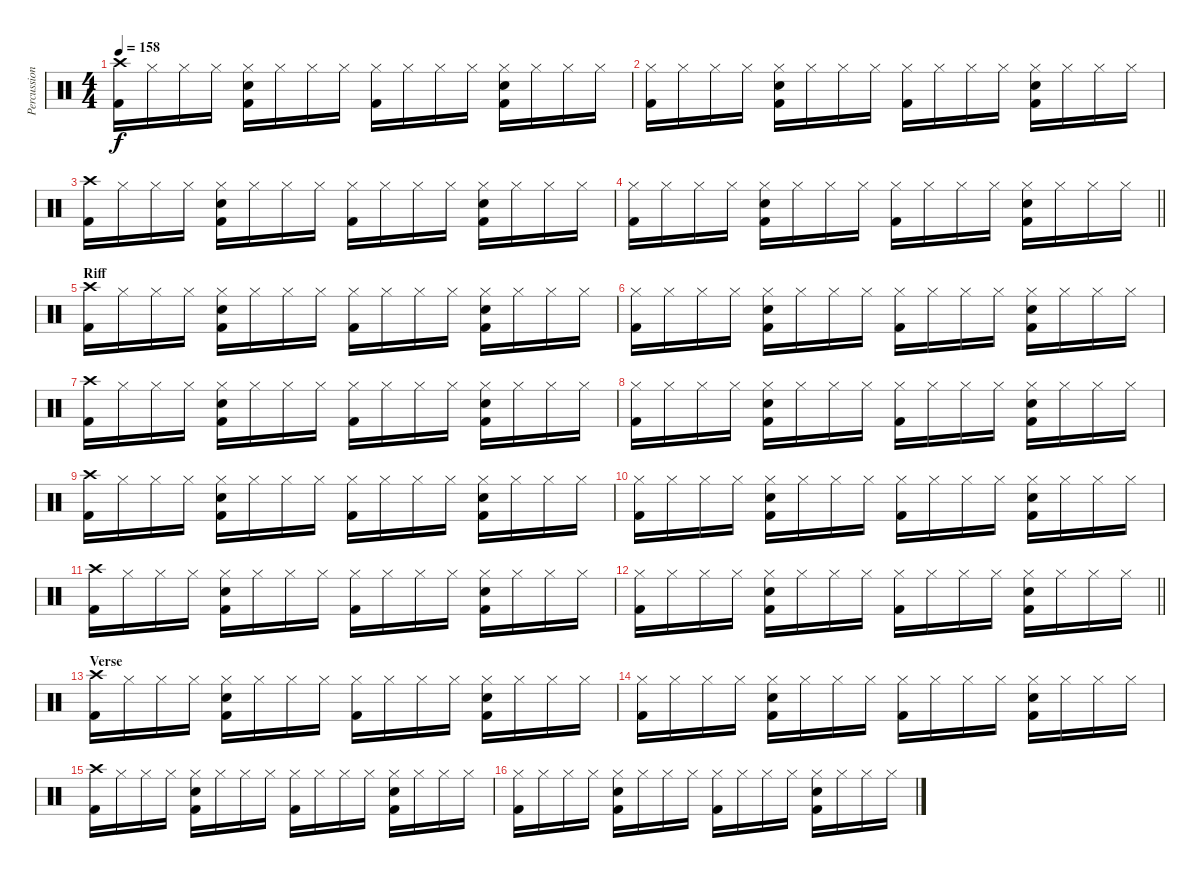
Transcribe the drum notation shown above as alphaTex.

\track ("Percussion" "Percussion") {instrument percussion}
\staff {score}
\articulation defaults
\ts (4 4)
\tempo 158
\clef neutral
\ks c
("Crash high (hit)" "Kick (hit) 2").16{dy f} "Hi-Hat (closed)".16 "Hi-Hat (closed)".16 "Hi-Hat (closed)".16 ("Hi-Hat (closed)" "Electric Snare (hit)" "Kick (hit) 2").16 "Hi-Hat (closed)".16 "Hi-Hat (closed)".16 "Hi-Hat (closed)".16 ("Hi-Hat (closed)" "Kick (hit) 2").16 "Hi-Hat (closed)".16 "Hi-Hat (closed)".16 "Hi-Hat (closed)".16 ("Hi-Hat (closed)" "Electric Snare (hit)" "Kick (hit) 2").16 "Hi-Hat (closed)".16 "Hi-Hat (closed)".16 "Hi-Hat (closed)".16 |
("Hi-Hat (closed)" "Kick (hit) 2").16 "Hi-Hat (closed)".16 "Hi-Hat (closed)".16 "Hi-Hat (closed)".16 ("Hi-Hat (closed)" "Electric Snare (hit)" "Kick (hit) 2").16 "Hi-Hat (closed)".16 "Hi-Hat (closed)".16 "Hi-Hat (closed)".16 ("Hi-Hat (closed)" "Kick (hit) 2").16 "Hi-Hat (closed)".16 "Hi-Hat (closed)".16 "Hi-Hat (closed)".16 ("Hi-Hat (closed)" "Electric Snare (hit)" "Kick (hit) 2").16 "Hi-Hat (closed)".16 "Hi-Hat (closed)".16 "Hi-Hat (closed)".16 |
("Crash high (hit)" "Kick (hit) 2").16 "Hi-Hat (closed)".16 "Hi-Hat (closed)".16 "Hi-Hat (closed)".16 ("Hi-Hat (closed)" "Electric Snare (hit)" "Kick (hit) 2").16 "Hi-Hat (closed)".16 "Hi-Hat (closed)".16 "Hi-Hat (closed)".16 ("Hi-Hat (closed)" "Kick (hit) 2").16 "Hi-Hat (closed)".16 "Hi-Hat (closed)".16 "Hi-Hat (closed)".16 ("Hi-Hat (closed)" "Electric Snare (hit)" "Kick (hit) 2").16 "Hi-Hat (closed)".16 "Hi-Hat (closed)".16 "Hi-Hat (closed)".16 |
\barLineRight lightlight
("Hi-Hat (closed)" "Kick (hit) 2").16 "Hi-Hat (closed)".16 "Hi-Hat (closed)".16 "Hi-Hat (closed)".16 ("Hi-Hat (closed)" "Electric Snare (hit)" "Kick (hit) 2").16 "Hi-Hat (closed)".16 "Hi-Hat (closed)".16 "Hi-Hat (closed)".16 ("Hi-Hat (closed)" "Kick (hit) 2").16 "Hi-Hat (closed)".16 "Hi-Hat (closed)".16 "Hi-Hat (closed)".16 ("Hi-Hat (closed)" "Electric Snare (hit)" "Kick (hit) 2").16 "Hi-Hat (closed)".16 "Hi-Hat (closed)".16 "Hi-Hat (closed)".16 |
\section ("" "Riff")
("Crash high (hit)" "Kick (hit) 2").16 "Hi-Hat (closed)".16 "Hi-Hat (closed)".16 "Hi-Hat (closed)".16 ("Hi-Hat (closed)" "Electric Snare (hit)" "Kick (hit) 2").16 "Hi-Hat (closed)".16 "Hi-Hat (closed)".16 "Hi-Hat (closed)".16 ("Hi-Hat (closed)" "Kick (hit) 2").16 "Hi-Hat (closed)".16 "Hi-Hat (closed)".16 "Hi-Hat (closed)".16 ("Hi-Hat (closed)" "Electric Snare (hit)" "Kick (hit) 2").16 "Hi-Hat (closed)".16 "Hi-Hat (closed)".16 "Hi-Hat (closed)".16 |
("Hi-Hat (closed)" "Kick (hit) 2").16 "Hi-Hat (closed)".16 "Hi-Hat (closed)".16 "Hi-Hat (closed)".16 ("Hi-Hat (closed)" "Electric Snare (hit)" "Kick (hit) 2").16 "Hi-Hat (closed)".16 "Hi-Hat (closed)".16 "Hi-Hat (closed)".16 ("Hi-Hat (closed)" "Kick (hit) 2").16 "Hi-Hat (closed)".16 "Hi-Hat (closed)".16 "Hi-Hat (closed)".16 ("Hi-Hat (closed)" "Electric Snare (hit)" "Kick (hit) 2").16 "Hi-Hat (closed)".16 "Hi-Hat (closed)".16 "Hi-Hat (closed)".16 |
("Crash high (hit)" "Kick (hit) 2").16 "Hi-Hat (closed)".16 "Hi-Hat (closed)".16 "Hi-Hat (closed)".16 ("Hi-Hat (closed)" "Electric Snare (hit)" "Kick (hit) 2").16 "Hi-Hat (closed)".16 "Hi-Hat (closed)".16 "Hi-Hat (closed)".16 ("Hi-Hat (closed)" "Kick (hit) 2").16 "Hi-Hat (closed)".16 "Hi-Hat (closed)".16 "Hi-Hat (closed)".16 ("Hi-Hat (closed)" "Electric Snare (hit)" "Kick (hit) 2").16 "Hi-Hat (closed)".16 "Hi-Hat (closed)".16 "Hi-Hat (closed)".16 |
("Hi-Hat (closed)" "Kick (hit) 2").16 "Hi-Hat (closed)".16 "Hi-Hat (closed)".16 "Hi-Hat (closed)".16 ("Hi-Hat (closed)" "Electric Snare (hit)" "Kick (hit) 2").16 "Hi-Hat (closed)".16 "Hi-Hat (closed)".16 "Hi-Hat (closed)".16 ("Hi-Hat (closed)" "Kick (hit) 2").16 "Hi-Hat (closed)".16 "Hi-Hat (closed)".16 "Hi-Hat (closed)".16 ("Hi-Hat (closed)" "Electric Snare (hit)" "Kick (hit) 2").16 "Hi-Hat (closed)".16 "Hi-Hat (closed)".16 "Hi-Hat (closed)".16 |
("Crash high (hit)" "Kick (hit) 2").16 "Hi-Hat (closed)".16 "Hi-Hat (closed)".16 "Hi-Hat (closed)".16 ("Hi-Hat (closed)" "Electric Snare (hit)" "Kick (hit) 2").16 "Hi-Hat (closed)".16 "Hi-Hat (closed)".16 "Hi-Hat (closed)".16 ("Hi-Hat (closed)" "Kick (hit) 2").16 "Hi-Hat (closed)".16 "Hi-Hat (closed)".16 "Hi-Hat (closed)".16 ("Hi-Hat (closed)" "Electric Snare (hit)" "Kick (hit) 2").16 "Hi-Hat (closed)".16 "Hi-Hat (closed)".16 "Hi-Hat (closed)".16 |
("Hi-Hat (closed)" "Kick (hit) 2").16 "Hi-Hat (closed)".16 "Hi-Hat (closed)".16 "Hi-Hat (closed)".16 ("Hi-Hat (closed)" "Electric Snare (hit)" "Kick (hit) 2").16 "Hi-Hat (closed)".16 "Hi-Hat (closed)".16 "Hi-Hat (closed)".16 ("Hi-Hat (closed)" "Kick (hit) 2").16 "Hi-Hat (closed)".16 "Hi-Hat (closed)".16 "Hi-Hat (closed)".16 ("Hi-Hat (closed)" "Electric Snare (hit)" "Kick (hit) 2").16 "Hi-Hat (closed)".16 "Hi-Hat (closed)".16 "Hi-Hat (closed)".16 |
("Crash high (hit)" "Kick (hit) 2").16 "Hi-Hat (closed)".16 "Hi-Hat (closed)".16 "Hi-Hat (closed)".16 ("Hi-Hat (closed)" "Electric Snare (hit)" "Kick (hit) 2").16 "Hi-Hat (closed)".16 "Hi-Hat (closed)".16 "Hi-Hat (closed)".16 ("Hi-Hat (closed)" "Kick (hit) 2").16 "Hi-Hat (closed)".16 "Hi-Hat (closed)".16 "Hi-Hat (closed)".16 ("Hi-Hat (closed)" "Electric Snare (hit)" "Kick (hit) 2").16 "Hi-Hat (closed)".16 "Hi-Hat (closed)".16 "Hi-Hat (closed)".16 |
\barLineRight lightlight
("Hi-Hat (closed)" "Kick (hit) 2").16 "Hi-Hat (closed)".16 "Hi-Hat (closed)".16 "Hi-Hat (closed)".16 ("Hi-Hat (closed)" "Electric Snare (hit)" "Kick (hit) 2").16 "Hi-Hat (closed)".16 "Hi-Hat (closed)".16 "Hi-Hat (closed)".16 ("Hi-Hat (closed)" "Kick (hit) 2").16 "Hi-Hat (closed)".16 "Hi-Hat (closed)".16 "Hi-Hat (closed)".16 ("Hi-Hat (closed)" "Electric Snare (hit)" "Kick (hit) 2").16 "Hi-Hat (closed)".16 "Hi-Hat (closed)".16 "Hi-Hat (closed)".16 |
\section ("" "Verse")
("Crash high (hit)" "Kick (hit) 2").16 "Hi-Hat (closed)".16 "Hi-Hat (closed)".16 "Hi-Hat (closed)".16 ("Hi-Hat (closed)" "Electric Snare (hit)" "Kick (hit) 2").16 "Hi-Hat (closed)".16 "Hi-Hat (closed)".16 "Hi-Hat (closed)".16 ("Hi-Hat (closed)" "Kick (hit) 2").16 "Hi-Hat (closed)".16 "Hi-Hat (closed)".16 "Hi-Hat (closed)".16 ("Hi-Hat (closed)" "Electric Snare (hit)" "Kick (hit) 2").16 "Hi-Hat (closed)".16 "Hi-Hat (closed)".16 "Hi-Hat (closed)".16 |
("Hi-Hat (closed)" "Kick (hit) 2").16 "Hi-Hat (closed)".16 "Hi-Hat (closed)".16 "Hi-Hat (closed)".16 ("Hi-Hat (closed)" "Electric Snare (hit)" "Kick (hit) 2").16 "Hi-Hat (closed)".16 "Hi-Hat (closed)".16 "Hi-Hat (closed)".16 ("Hi-Hat (closed)" "Kick (hit) 2").16 "Hi-Hat (closed)".16 "Hi-Hat (closed)".16 "Hi-Hat (closed)".16 ("Hi-Hat (closed)" "Electric Snare (hit)" "Kick (hit) 2").16 "Hi-Hat (closed)".16 "Hi-Hat (closed)".16 "Hi-Hat (closed)".16 |
("Crash high (hit)" "Kick (hit) 2").16 "Hi-Hat (closed)".16 "Hi-Hat (closed)".16 "Hi-Hat (closed)".16 ("Hi-Hat (closed)" "Electric Snare (hit)" "Kick (hit) 2").16 "Hi-Hat (closed)".16 "Hi-Hat (closed)".16 "Hi-Hat (closed)".16 ("Hi-Hat (closed)" "Kick (hit) 2").16 "Hi-Hat (closed)".16 "Hi-Hat (closed)".16 "Hi-Hat (closed)".16 ("Hi-Hat (closed)" "Electric Snare (hit)" "Kick (hit) 2").16 "Hi-Hat (closed)".16 "Hi-Hat (closed)".16 "Hi-Hat (closed)".16 |
("Hi-Hat (closed)" "Kick (hit) 2").16 "Hi-Hat (closed)".16 "Hi-Hat (closed)".16 "Hi-Hat (closed)".16 ("Hi-Hat (closed)" "Electric Snare (hit)" "Kick (hit) 2").16 "Hi-Hat (closed)".16 "Hi-Hat (closed)".16 "Hi-Hat (closed)".16 ("Hi-Hat (closed)" "Kick (hit) 2").16 "Hi-Hat (closed)".16 "Hi-Hat (closed)".16 "Hi-Hat (closed)".16 ("Hi-Hat (closed)" "Electric Snare (hit)" "Kick (hit) 2").16 "Hi-Hat (closed)".16 "Hi-Hat (closed)".16 "Hi-Hat (closed)".16
